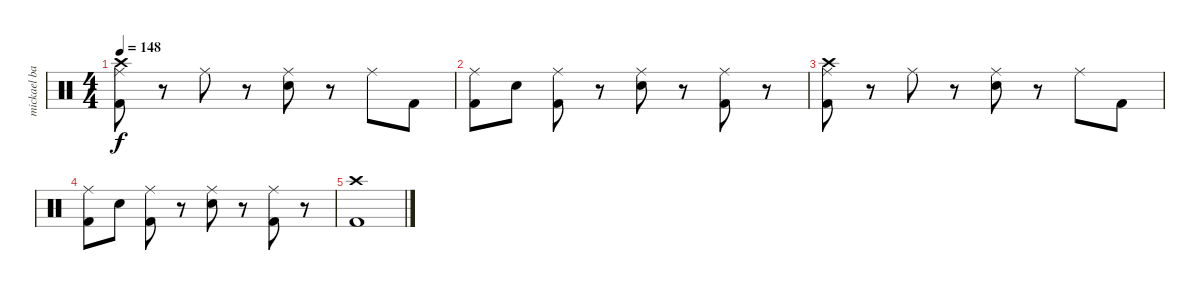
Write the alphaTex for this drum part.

\track ("mickael barker drums" "mickael ba") {instrument percussion}
\staff {score}
\articulation defaults
\ts (4 4)
\tempo 148
\clef neutral
\ks c
("Crash high (hit)" "Ride (middle)" "Kick (hit) 2").8{dy f} r.8 "Ride (middle)".8 r.8 ("Ride (middle)" "Snare (hit) 2").8 r.8 "Ride (middle)".8 "Kick (hit) 2".8 |
("Ride (middle)" "Kick (hit) 2").8 "Snare (hit) 2".8 ("Ride (middle)" "Kick (hit) 2").8 r.8 ("Ride (middle)" "Snare (hit) 2").8 r.8 ("Ride (middle)" "Kick (hit) 2").8 r.8 |
("Crash high (hit)" "Ride (middle)" "Kick (hit) 2").8 r.8 "Ride (middle)".8 r.8 ("Ride (middle)" "Snare (hit) 2").8 r.8 "Ride (middle)".8 "Kick (hit) 2".8 |
("Ride (middle)" "Kick (hit) 2").8 "Snare (hit) 2".8 ("Ride (middle)" "Kick (hit) 2").8 r.8 ("Ride (middle)" "Snare (hit) 2").8 r.8 ("Ride (middle)" "Kick (hit) 2").8 r.8 |
("Crash high (hit)" "Kick (hit) 2").1
